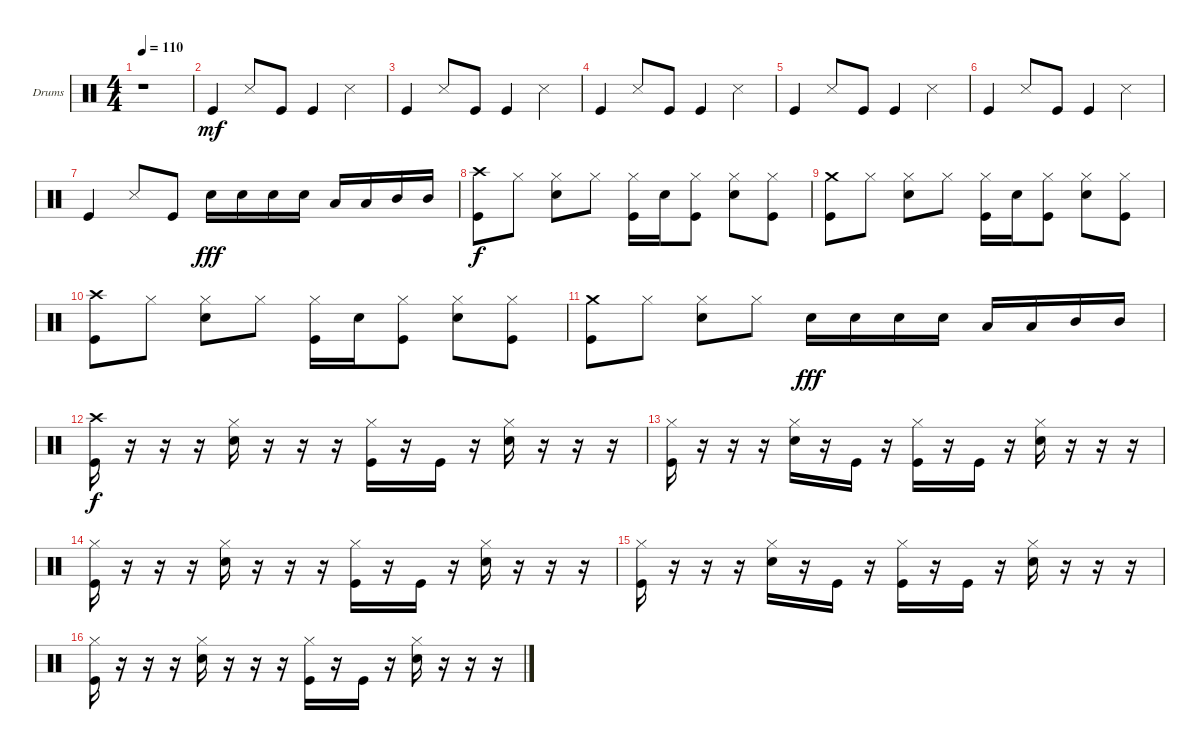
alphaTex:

\defaultSystemsLayout 4
\bracketExtendMode groupsimilarinstruments
\firstSystemTrackNameOrientation horizontal
\otherSystemsTrackNameOrientation horizontal
\track ("Drumkit" "Drums") {instrument percussion}
\staff {score}
\articulation defaults
\ts (4 4)
\tempo 110
\clef neutral
\ks c
r.1{dy mf} |
"Kick (hit)".4 "Snare (side stick) 3".8 "Kick (hit)".8 "Kick (hit)".4 "Snare (side stick) 3".4 |
"Kick (hit)".4 "Snare (side stick) 3".8 "Kick (hit)".8 "Kick (hit)".4 "Snare (side stick) 3".4 |
"Kick (hit)".4 "Snare (side stick) 3".8 "Kick (hit)".8 "Kick (hit)".4 "Snare (side stick) 3".4 |
"Kick (hit)".4 "Snare (side stick) 3".8 "Kick (hit)".8 "Kick (hit)".4 "Snare (side stick) 3".4 |
"Kick (hit)".4 "Snare (side stick) 3".8 "Kick (hit)".8 "Kick (hit)".4 "Snare (side stick) 3".4 |
"Kick (hit)".4 "Snare (side stick) 3".8 "Kick (hit)".8 "Snare (hit) 2".16{dy fff} "Snare (hit) 2".16 "Snare (hit) 2".16 "Snare (hit) 2".16 "Low Tom (hit)".16 "Low Tom (hit)".16 "Mid Tom (hit)".16 "Mid Tom (hit)".16 |
("Kick (hit)" "Crash high (hit)").8{dy f} "Hi-Hat (closed)".8 ("Hi-Hat (closed)" "Snare (hit) 2").8 "Hi-Hat (closed)".8 ("Hi-Hat (closed)" "Kick (hit)").16 "Snare (hit) 2".16 ("Hi-Hat (closed)" "Kick (hit)").8 ("Hi-Hat (closed)" "Snare (hit) 2").8 ("Hi-Hat (closed)" "Kick (hit)").8 |
("Kick (hit)" "Crash medium (hit)").8 "Hi-Hat (closed)".8 ("Hi-Hat (closed)" "Snare (hit) 2").8 "Hi-Hat (closed)".8 ("Hi-Hat (closed)" "Kick (hit)").16 "Snare (hit) 2".16 ("Hi-Hat (closed)" "Kick (hit)").8 ("Hi-Hat (closed)" "Snare (hit) 2").8 ("Hi-Hat (closed)" "Kick (hit)").8 |
("Kick (hit)" "Crash high (hit)").8 "Hi-Hat (closed)".8 ("Hi-Hat (closed)" "Snare (hit) 2").8 "Hi-Hat (closed)".8 ("Hi-Hat (closed)" "Kick (hit)").16 "Snare (hit) 2".16 ("Hi-Hat (closed)" "Kick (hit)").8 ("Hi-Hat (closed)" "Snare (hit) 2").8 ("Hi-Hat (closed)" "Kick (hit)").8 |
("Kick (hit)" "Crash medium (hit)").8 "Hi-Hat (closed)".8 ("Hi-Hat (closed)" "Snare (hit) 2").8 "Hi-Hat (closed)".8 "Snare (hit) 2".16{dy fff} "Snare (hit) 2".16 "Snare (hit) 2".16 "Snare (hit) 2".16 "Low Tom (hit)".16 "Low Tom (hit)".16 "Mid Tom (hit)".16 "Mid Tom (hit)".16 |
("Kick (hit)" "Crash high (hit)").16{dy f} r.16 r.16 r.16 ("Hi-Hat (closed)" "Snare (hit) 2").16 r.16 r.16 r.16 ("Hi-Hat (closed)" "Kick (hit)").16 r.16 "Kick (hit)".16 r.16 ("Hi-Hat (closed)" "Snare (hit) 2").16 r.16 r.16 r.16 |
("Kick (hit)" "Hi-Hat (closed)").16 r.16 r.16 r.16 ("Hi-Hat (closed)" "Snare (hit) 2").16 r.16 "Kick (hit)".16 r.16 ("Hi-Hat (closed)" "Kick (hit)").16 r.16 "Kick (hit)".16 r.16 ("Hi-Hat (closed)" "Snare (hit) 2").16 r.16 r.16 r.16 |
("Kick (hit)" "Hi-Hat (closed)").16 r.16 r.16 r.16 ("Hi-Hat (closed)" "Snare (hit) 2").16 r.16 r.16 r.16 ("Hi-Hat (closed)" "Kick (hit)").16 r.16 "Kick (hit)".16 r.16 ("Hi-Hat (closed)" "Snare (hit) 2").16 r.16 r.16 r.16 |
("Kick (hit)" "Hi-Hat (closed)").16 r.16 r.16 r.16 ("Hi-Hat (closed)" "Snare (hit) 2").16 r.16 "Kick (hit)".16 r.16 ("Hi-Hat (closed)" "Kick (hit)").16 r.16 "Kick (hit)".16 r.16 ("Hi-Hat (closed)" "Snare (hit) 2").16 r.16 r.16 r.16 |
("Kick (hit)" "Hi-Hat (closed)").16 r.16 r.16 r.16 ("Hi-Hat (closed)" "Snare (hit) 2").16 r.16 r.16 r.16 ("Hi-Hat (closed)" "Kick (hit)").16 r.16 "Kick (hit)".16 r.16 ("Hi-Hat (closed)" "Snare (hit) 2").16 r.16 r.16 r.16
